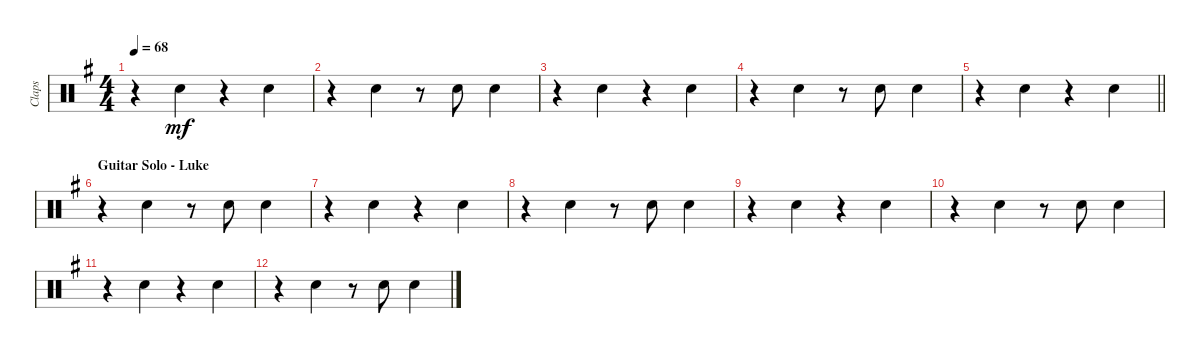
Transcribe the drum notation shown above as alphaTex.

\track ("Claps" "Claps") {instrument percussion}
\staff {score}
\articulation defaults
\ts (4 4)
\tempo 68
\clef neutral
\ks g
r.4{dy mf} "Hand Clap (hit)".4 r.4 "Hand Clap (hit)".4 |
r.4 "Hand Clap (hit)".4 r.8 "Hand Clap (hit)".8 "Hand Clap (hit)".4 |
r.4 "Hand Clap (hit)".4 r.4 "Hand Clap (hit)".4 |
r.4 "Hand Clap (hit)".4 r.8 "Hand Clap (hit)".8 "Hand Clap (hit)".4 |
\barLineRight lightlight
r.4 "Hand Clap (hit)".4 r.4 "Hand Clap (hit)".4 |
\section ("" "Guitar Solo - Luke")
r.4 "Hand Clap (hit)".4 r.8 "Hand Clap (hit)".8 "Hand Clap (hit)".4 |
r.4 "Hand Clap (hit)".4 r.4 "Hand Clap (hit)".4 |
r.4 "Hand Clap (hit)".4 r.8 "Hand Clap (hit)".8 "Hand Clap (hit)".4 |
r.4 "Hand Clap (hit)".4 r.4 "Hand Clap (hit)".4 |
r.4 "Hand Clap (hit)".4 r.8 "Hand Clap (hit)".8 "Hand Clap (hit)".4 |
r.4 "Hand Clap (hit)".4 r.4 "Hand Clap (hit)".4 |
r.4 "Hand Clap (hit)".4 r.8 "Hand Clap (hit)".8 "Hand Clap (hit)".4
